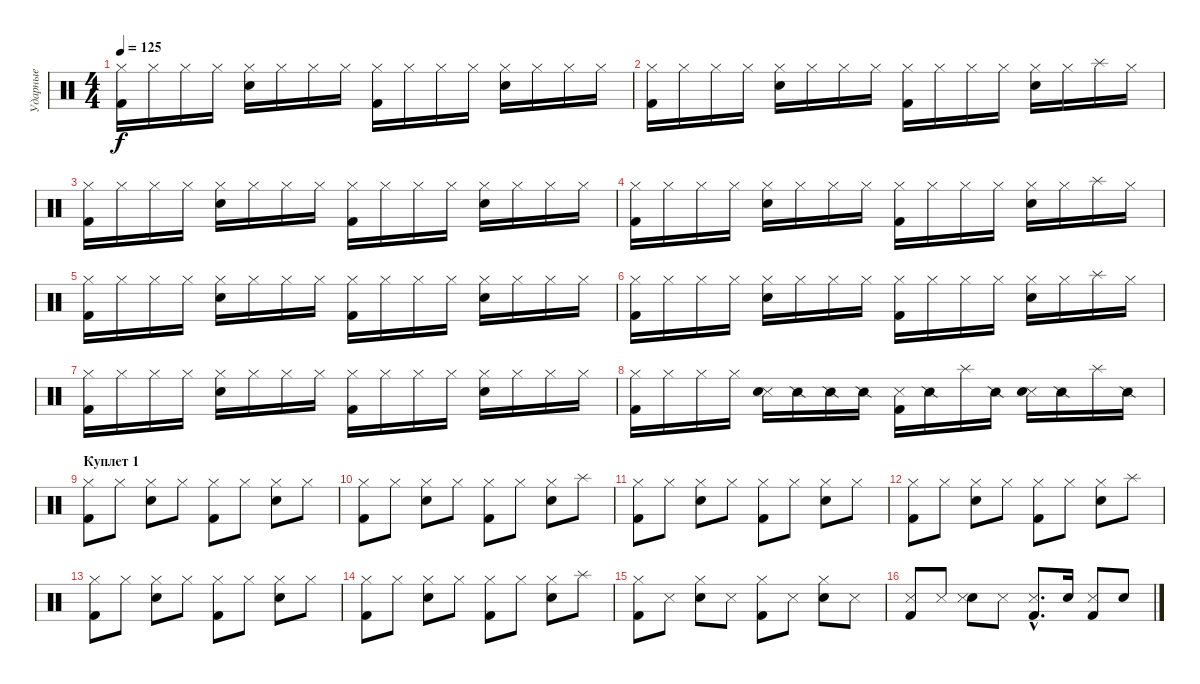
\track ("Ударные" "Ударные") {instrument percussion}
\staff {score}
\articulation defaults
\ts (4 4)
\tempo 125
\clef neutral
\ks c
("Hi-Hat (closed)" "Kick (hit) 2").16{dy f} "Hi-Hat (closed)".16 "Hi-Hat (closed)".16 "Hi-Hat (closed)".16 ("Hi-Hat (closed)" "Snare (hit) 2").16 "Hi-Hat (closed)".16 "Hi-Hat (closed)".16 "Hi-Hat (closed)".16 ("Hi-Hat (closed)" "Kick (hit) 2").16 "Hi-Hat (closed)".16 "Hi-Hat (closed)".16 "Hi-Hat (closed)".16 ("Hi-Hat (closed)" "Snare (hit) 2").16 "Hi-Hat (closed)".16 "Hi-Hat (closed)".16 "Hi-Hat (closed)".16 |
("Hi-Hat (closed)" "Kick (hit) 2").16 "Hi-Hat (closed)".16 "Hi-Hat (closed)".16 "Hi-Hat (closed)".16 ("Hi-Hat (closed)" "Snare (hit) 2").16 "Hi-Hat (closed)".16 "Hi-Hat (closed)".16 "Hi-Hat (closed)".16 ("Hi-Hat (closed)" "Kick (hit) 2").16 "Hi-Hat (closed)".16 "Hi-Hat (closed)".16 "Hi-Hat (closed)".16 ("Hi-Hat (closed)" "Snare (hit) 2").16 "Hi-Hat (closed)".16 "Splash (hit)".16 "Hi-Hat (closed)".16 |
("Hi-Hat (closed)" "Kick (hit) 2").16 "Hi-Hat (closed)".16 "Hi-Hat (closed)".16 "Hi-Hat (closed)".16 ("Hi-Hat (closed)" "Snare (hit) 2").16 "Hi-Hat (closed)".16 "Hi-Hat (closed)".16 "Hi-Hat (closed)".16 ("Hi-Hat (closed)" "Kick (hit) 2").16 "Hi-Hat (closed)".16 "Hi-Hat (closed)".16 "Hi-Hat (closed)".16 ("Hi-Hat (closed)" "Snare (hit) 2").16 "Hi-Hat (closed)".16 "Hi-Hat (closed)".16 "Hi-Hat (closed)".16 |
("Hi-Hat (closed)" "Kick (hit) 2").16 "Hi-Hat (closed)".16 "Hi-Hat (closed)".16 "Hi-Hat (closed)".16 ("Hi-Hat (closed)" "Snare (hit) 2").16 "Hi-Hat (closed)".16 "Hi-Hat (closed)".16 "Hi-Hat (closed)".16 ("Hi-Hat (closed)" "Kick (hit) 2").16 "Hi-Hat (closed)".16 "Hi-Hat (closed)".16 "Hi-Hat (closed)".16 ("Hi-Hat (closed)" "Snare (hit) 2").16 "Hi-Hat (closed)".16 "Splash (hit)".16 "Hi-Hat (closed)".16 |
("Hi-Hat (closed)" "Kick (hit) 2").16 "Hi-Hat (closed)".16 "Hi-Hat (closed)".16 "Hi-Hat (closed)".16 ("Hi-Hat (closed)" "Snare (hit) 2").16 "Hi-Hat (closed)".16 "Hi-Hat (closed)".16 "Hi-Hat (closed)".16 ("Hi-Hat (closed)" "Kick (hit) 2").16 "Hi-Hat (closed)".16 "Hi-Hat (closed)".16 "Hi-Hat (closed)".16 ("Hi-Hat (closed)" "Snare (hit) 2").16 "Hi-Hat (closed)".16 "Hi-Hat (closed)".16 "Hi-Hat (closed)".16 |
("Hi-Hat (closed)" "Kick (hit) 2").16 "Hi-Hat (closed)".16 "Hi-Hat (closed)".16 "Hi-Hat (closed)".16 ("Hi-Hat (closed)" "Snare (hit) 2").16 "Hi-Hat (closed)".16 "Hi-Hat (closed)".16 "Hi-Hat (closed)".16 ("Hi-Hat (closed)" "Kick (hit) 2").16 "Hi-Hat (closed)".16 "Hi-Hat (closed)".16 "Hi-Hat (closed)".16 ("Hi-Hat (closed)" "Snare (hit) 2").16 "Hi-Hat (closed)".16 "Splash (hit)".16 "Hi-Hat (closed)".16 |
("Hi-Hat (closed)" "Kick (hit) 2").16 "Hi-Hat (closed)".16 "Hi-Hat (closed)".16 "Hi-Hat (closed)".16 ("Hi-Hat (closed)" "Snare (hit) 2").16 "Hi-Hat (closed)".16 "Hi-Hat (closed)".16 "Hi-Hat (closed)".16 ("Hi-Hat (closed)" "Kick (hit) 2").16 "Hi-Hat (closed)".16 "Hi-Hat (closed)".16 "Hi-Hat (closed)".16 ("Hi-Hat (closed)" "Snare (hit) 2").16 "Hi-Hat (closed)".16 "Hi-Hat (closed)".16 "Hi-Hat (closed)".16 |
("Hi-Hat (closed)" "Kick (hit) 2").16 "Hi-Hat (closed)".16 "Hi-Hat (closed)".16 "Hi-Hat (closed)".16 ("Snare (side stick) 3" "Snare (hit) 2").16 "Snare (side stick) 2".16 "Snare (side stick) 2".16 "Snare (side stick) 2".16 ("Snare (side stick) 3" "Kick (hit) 2").16 "Snare (side stick) 2".16 "Splash (hit)".16 "Snare (side stick) 2".16 ("Snare (side stick) 3" "Snare (hit) 2").16 "Snare (side stick) 2".16 "Splash (hit)".16 "Snare (side stick) 2".16 |
\section ("" "Куплет 1")
("Kick (hit) 2" "Hi-Hat (closed)").8 "Hi-Hat (closed)".8 ("Snare (hit) 2" "Hi-Hat (closed)").8 "Hi-Hat (closed)".8 ("Kick (hit) 2" "Hi-Hat (closed)").8 "Hi-Hat (closed)".8 ("Snare (hit) 2" "Hi-Hat (closed)").8 "Hi-Hat (closed)".8 |
("Kick (hit) 2" "Hi-Hat (closed)").8 "Hi-Hat (closed)".8 ("Snare (hit) 2" "Hi-Hat (closed)").8 "Hi-Hat (closed)".8 ("Kick (hit) 2" "Hi-Hat (closed)").8 "Hi-Hat (closed)".8 ("Snare (hit) 2" "Hi-Hat (closed)").8 "Splash (hit)".8 |
("Kick (hit) 2" "Hi-Hat (closed)").8 "Hi-Hat (closed)".8 ("Snare (hit) 2" "Hi-Hat (closed)").8 "Hi-Hat (closed)".8 ("Kick (hit) 2" "Hi-Hat (closed)").8 "Hi-Hat (closed)".8 ("Snare (hit) 2" "Hi-Hat (closed)").8 "Hi-Hat (closed)".8 |
("Kick (hit) 2" "Hi-Hat (closed)").8 "Hi-Hat (closed)".8 ("Snare (hit) 2" "Hi-Hat (closed)").8 "Hi-Hat (closed)".8 ("Kick (hit) 2" "Hi-Hat (closed)").8 "Hi-Hat (closed)".8 ("Snare (hit) 2" "Hi-Hat (closed)").8 "Splash (hit)".8 |
("Kick (hit) 2" "Hi-Hat (closed)").8 "Hi-Hat (closed)".8 ("Snare (hit) 2" "Hi-Hat (closed)").8 "Hi-Hat (closed)".8 ("Kick (hit) 2" "Hi-Hat (closed)").8 "Hi-Hat (closed)".8 ("Snare (hit) 2" "Hi-Hat (closed)").8 "Hi-Hat (closed)".8 |
("Kick (hit) 2" "Hi-Hat (closed)").8 "Hi-Hat (closed)".8 ("Snare (hit) 2" "Hi-Hat (closed)").8 "Hi-Hat (closed)".8 ("Kick (hit) 2" "Hi-Hat (closed)").8 "Hi-Hat (closed)".8 ("Snare (hit) 2" "Hi-Hat (closed)").8 "Splash (hit)".8 |
("Kick (hit) 2" "Hi-Hat (closed)").8 "Snare (side stick) 3".8 ("Snare (hit) 2" "Hi-Hat (closed)").8 "Snare (side stick) 3".8 ("Kick (hit) 2" "Hi-Hat (closed)").8 "Snare (side stick) 3".8 ("Snare (hit) 2" "Hi-Hat (closed)").8 "Snare (side stick) 3".8 |
("Kick (hit) 2" "Snare (side stick) 3").8 "Snare (side stick) 3".8 ("Snare (hit) 2" "Snare (side stick) 3").8 "Snare (side stick) 3".8 ("Kick (hit) 2"{hac} "Snare (side stick) 3"{hac}).8{d} "Snare (hit) 2".16 ("Kick (hit) 2" "Snare (side stick) 3").8 "Snare (hit) 2".8
